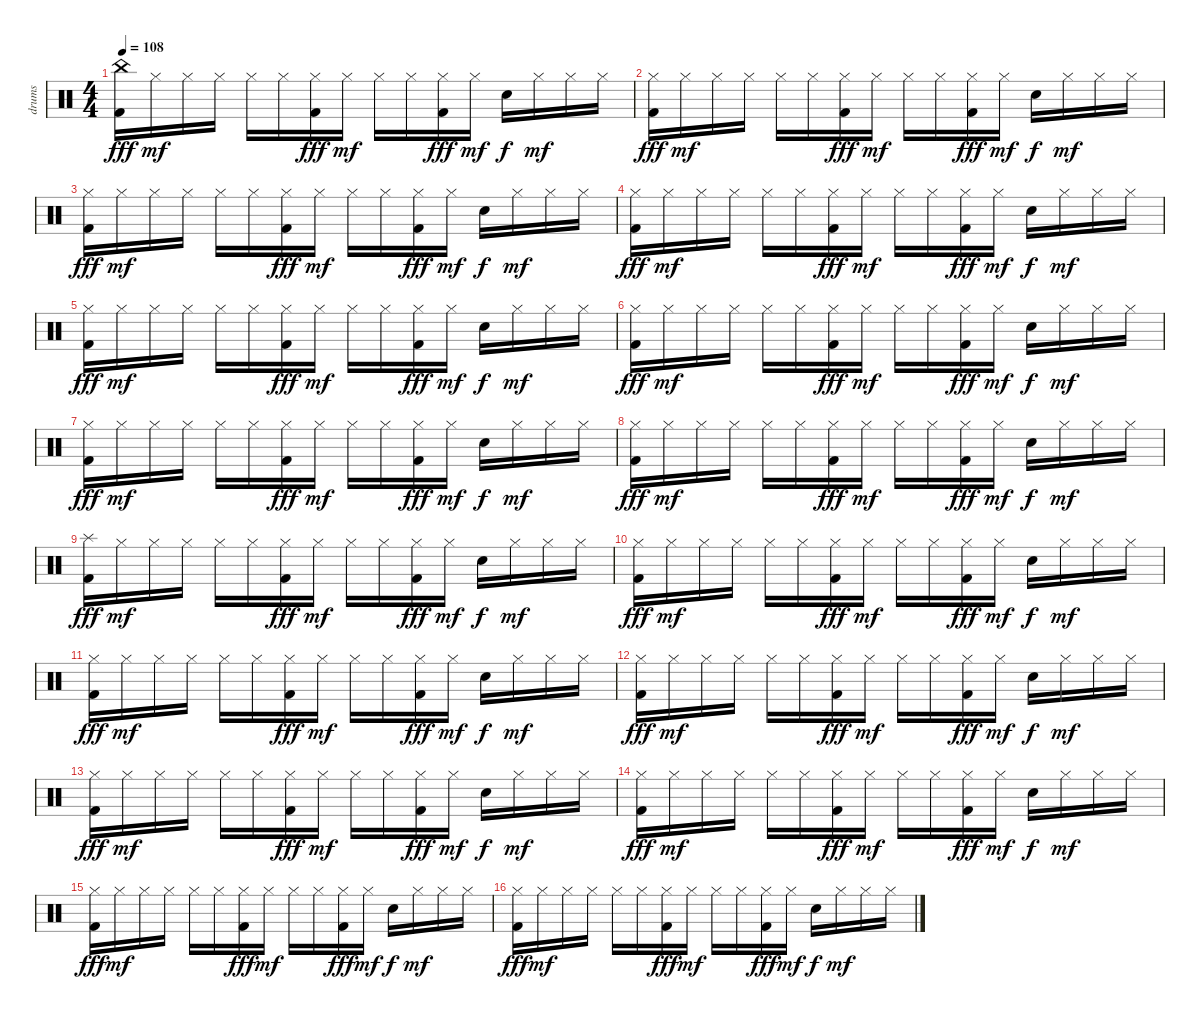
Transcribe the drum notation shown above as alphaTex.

\track ("drums" "drums") {instrument percussion}
\staff {score}
\articulation defaults
\ts (4 4)
\tempo 108
\clef neutral
\ks c
("China (hit)" "Kick (hit) 2").16{dy fff} "Hi-Hat (closed)".16{dy mf} "Hi-Hat (closed)".16 "Hi-Hat (closed)".16 "Hi-Hat (closed)".16 "Hi-Hat (closed)".16 ("Hi-Hat (closed)" "Kick (hit) 2").16{dy fff} "Hi-Hat (closed)".16{dy mf} "Hi-Hat (closed)".16 "Hi-Hat (closed)".16 ("Hi-Hat (closed)" "Kick (hit) 2").16{dy fff} "Hi-Hat (closed)".16{dy mf} "Snare (hit) 2".16{dy f} "Hi-Hat (closed)".16{dy mf} "Hi-Hat (closed)".16 "Hi-Hat (closed)".16 |
("Hi-Hat (closed)" "Kick (hit) 2").16{dy fff} "Hi-Hat (closed)".16{dy mf} "Hi-Hat (closed)".16 "Hi-Hat (closed)".16 "Hi-Hat (closed)".16 "Hi-Hat (closed)".16 ("Hi-Hat (closed)" "Kick (hit) 2").16{dy fff} "Hi-Hat (closed)".16{dy mf} "Hi-Hat (closed)".16 "Hi-Hat (closed)".16 ("Hi-Hat (closed)" "Kick (hit) 2").16{dy fff} "Hi-Hat (closed)".16{dy mf} "Snare (hit) 2".16{dy f} "Hi-Hat (closed)".16{dy mf} "Hi-Hat (closed)".16 "Hi-Hat (closed)".16 |
("Hi-Hat (closed)" "Kick (hit) 2").16{dy fff} "Hi-Hat (closed)".16{dy mf} "Hi-Hat (closed)".16 "Hi-Hat (closed)".16 "Hi-Hat (closed)".16 "Hi-Hat (closed)".16 ("Hi-Hat (closed)" "Kick (hit) 2").16{dy fff} "Hi-Hat (closed)".16{dy mf} "Hi-Hat (closed)".16 "Hi-Hat (closed)".16 ("Hi-Hat (closed)" "Kick (hit) 2").16{dy fff} "Hi-Hat (closed)".16{dy mf} "Snare (hit) 2".16{dy f} "Hi-Hat (closed)".16{dy mf} "Hi-Hat (closed)".16 "Hi-Hat (closed)".16 |
("Hi-Hat (closed)" "Kick (hit) 2").16{dy fff} "Hi-Hat (closed)".16{dy mf} "Hi-Hat (closed)".16 "Hi-Hat (closed)".16 "Hi-Hat (closed)".16 "Hi-Hat (closed)".16 ("Hi-Hat (closed)" "Kick (hit) 2").16{dy fff} "Hi-Hat (closed)".16{dy mf} "Hi-Hat (closed)".16 "Hi-Hat (closed)".16 ("Hi-Hat (closed)" "Kick (hit) 2").16{dy fff} "Hi-Hat (closed)".16{dy mf} "Snare (hit) 2".16{dy f} "Hi-Hat (closed)".16{dy mf} "Hi-Hat (closed)".16 "Hi-Hat (closed)".16 |
("Hi-Hat (closed)" "Kick (hit) 2").16{dy fff} "Hi-Hat (closed)".16{dy mf} "Hi-Hat (closed)".16 "Hi-Hat (closed)".16 "Hi-Hat (closed)".16 "Hi-Hat (closed)".16 ("Hi-Hat (closed)" "Kick (hit) 2").16{dy fff} "Hi-Hat (closed)".16{dy mf} "Hi-Hat (closed)".16 "Hi-Hat (closed)".16 ("Hi-Hat (closed)" "Kick (hit) 2").16{dy fff} "Hi-Hat (closed)".16{dy mf} "Snare (hit) 2".16{dy f} "Hi-Hat (closed)".16{dy mf} "Hi-Hat (closed)".16 "Hi-Hat (closed)".16 |
("Hi-Hat (closed)" "Kick (hit) 2").16{dy fff} "Hi-Hat (closed)".16{dy mf} "Hi-Hat (closed)".16 "Hi-Hat (closed)".16 "Hi-Hat (closed)".16 "Hi-Hat (closed)".16 ("Hi-Hat (closed)" "Kick (hit) 2").16{dy fff} "Hi-Hat (closed)".16{dy mf} "Hi-Hat (closed)".16 "Hi-Hat (closed)".16 ("Hi-Hat (closed)" "Kick (hit) 2").16{dy fff} "Hi-Hat (closed)".16{dy mf} "Snare (hit) 2".16{dy f} "Hi-Hat (closed)".16{dy mf} "Hi-Hat (closed)".16 "Hi-Hat (closed)".16 |
("Hi-Hat (closed)" "Kick (hit) 2").16{dy fff} "Hi-Hat (closed)".16{dy mf} "Hi-Hat (closed)".16 "Hi-Hat (closed)".16 "Hi-Hat (closed)".16 "Hi-Hat (closed)".16 ("Hi-Hat (closed)" "Kick (hit) 2").16{dy fff} "Hi-Hat (closed)".16{dy mf} "Hi-Hat (closed)".16 "Hi-Hat (closed)".16 ("Hi-Hat (closed)" "Kick (hit) 2").16{dy fff} "Hi-Hat (closed)".16{dy mf} "Snare (hit) 2".16{dy f} "Hi-Hat (closed)".16{dy mf} "Hi-Hat (closed)".16 "Hi-Hat (closed)".16 |
("Hi-Hat (closed)" "Kick (hit) 2").16{dy fff} "Hi-Hat (closed)".16{dy mf} "Hi-Hat (closed)".16 "Hi-Hat (closed)".16 "Hi-Hat (closed)".16 "Hi-Hat (closed)".16 ("Hi-Hat (closed)" "Kick (hit) 2").16{dy fff} "Hi-Hat (closed)".16{dy mf} "Hi-Hat (closed)".16 "Hi-Hat (closed)".16 ("Hi-Hat (closed)" "Kick (hit) 2").16{dy fff} "Hi-Hat (closed)".16{dy mf} "Snare (hit) 2".16{dy f} "Hi-Hat (closed)".16{dy mf} "Hi-Hat (closed)".16 "Hi-Hat (closed)".16 |
("Splash (hit)" "Kick (hit) 2").16{dy fff} "Hi-Hat (closed)".16{dy mf} "Hi-Hat (closed)".16 "Hi-Hat (closed)".16 "Hi-Hat (closed)".16 "Hi-Hat (closed)".16 ("Hi-Hat (closed)" "Kick (hit) 2").16{dy fff} "Hi-Hat (closed)".16{dy mf} "Hi-Hat (closed)".16 "Hi-Hat (closed)".16 ("Hi-Hat (closed)" "Kick (hit) 2").16{dy fff} "Hi-Hat (closed)".16{dy mf} "Snare (hit) 2".16{dy f} "Hi-Hat (closed)".16{dy mf} "Hi-Hat (closed)".16 "Hi-Hat (closed)".16 |
("Hi-Hat (closed)" "Kick (hit) 2").16{dy fff} "Hi-Hat (closed)".16{dy mf} "Hi-Hat (closed)".16 "Hi-Hat (closed)".16 "Hi-Hat (closed)".16 "Hi-Hat (closed)".16 ("Hi-Hat (closed)" "Kick (hit) 2").16{dy fff} "Hi-Hat (closed)".16{dy mf} "Hi-Hat (closed)".16 "Hi-Hat (closed)".16 ("Hi-Hat (closed)" "Kick (hit) 2").16{dy fff} "Hi-Hat (closed)".16{dy mf} "Snare (hit) 2".16{dy f} "Hi-Hat (closed)".16{dy mf} "Hi-Hat (closed)".16 "Hi-Hat (closed)".16 |
("Hi-Hat (closed)" "Kick (hit) 2").16{dy fff} "Hi-Hat (closed)".16{dy mf} "Hi-Hat (closed)".16 "Hi-Hat (closed)".16 "Hi-Hat (closed)".16 "Hi-Hat (closed)".16 ("Hi-Hat (closed)" "Kick (hit) 2").16{dy fff} "Hi-Hat (closed)".16{dy mf} "Hi-Hat (closed)".16 "Hi-Hat (closed)".16 ("Hi-Hat (closed)" "Kick (hit) 2").16{dy fff} "Hi-Hat (closed)".16{dy mf} "Snare (hit) 2".16{dy f} "Hi-Hat (closed)".16{dy mf} "Hi-Hat (closed)".16 "Hi-Hat (closed)".16 |
("Hi-Hat (closed)" "Kick (hit) 2").16{dy fff} "Hi-Hat (closed)".16{dy mf} "Hi-Hat (closed)".16 "Hi-Hat (closed)".16 "Hi-Hat (closed)".16 "Hi-Hat (closed)".16 ("Hi-Hat (closed)" "Kick (hit) 2").16{dy fff} "Hi-Hat (closed)".16{dy mf} "Hi-Hat (closed)".16 "Hi-Hat (closed)".16 ("Hi-Hat (closed)" "Kick (hit) 2").16{dy fff} "Hi-Hat (closed)".16{dy mf} "Snare (hit) 2".16{dy f} "Hi-Hat (closed)".16{dy mf} "Hi-Hat (closed)".16 "Hi-Hat (closed)".16 |
("Hi-Hat (closed)" "Kick (hit) 2").16{dy fff} "Hi-Hat (closed)".16{dy mf} "Hi-Hat (closed)".16 "Hi-Hat (closed)".16 "Hi-Hat (closed)".16 "Hi-Hat (closed)".16 ("Hi-Hat (closed)" "Kick (hit) 2").16{dy fff} "Hi-Hat (closed)".16{dy mf} "Hi-Hat (closed)".16 "Hi-Hat (closed)".16 ("Hi-Hat (closed)" "Kick (hit) 2").16{dy fff} "Hi-Hat (closed)".16{dy mf} "Snare (hit) 2".16{dy f} "Hi-Hat (closed)".16{dy mf} "Hi-Hat (closed)".16 "Hi-Hat (closed)".16 |
("Hi-Hat (closed)" "Kick (hit) 2").16{dy fff} "Hi-Hat (closed)".16{dy mf} "Hi-Hat (closed)".16 "Hi-Hat (closed)".16 "Hi-Hat (closed)".16 "Hi-Hat (closed)".16 ("Hi-Hat (closed)" "Kick (hit) 2").16{dy fff} "Hi-Hat (closed)".16{dy mf} "Hi-Hat (closed)".16 "Hi-Hat (closed)".16 ("Hi-Hat (closed)" "Kick (hit) 2").16{dy fff} "Hi-Hat (closed)".16{dy mf} "Snare (hit) 2".16{dy f} "Hi-Hat (closed)".16{dy mf} "Hi-Hat (closed)".16 "Hi-Hat (closed)".16 |
("Hi-Hat (closed)" "Kick (hit) 2").16{dy fff} "Hi-Hat (closed)".16{dy mf} "Hi-Hat (closed)".16 "Hi-Hat (closed)".16 "Hi-Hat (closed)".16 "Hi-Hat (closed)".16 ("Hi-Hat (closed)" "Kick (hit) 2").16{dy fff} "Hi-Hat (closed)".16{dy mf} "Hi-Hat (closed)".16 "Hi-Hat (closed)".16 ("Hi-Hat (closed)" "Kick (hit) 2").16{dy fff} "Hi-Hat (closed)".16{dy mf} "Snare (hit) 2".16{dy f} "Hi-Hat (closed)".16{dy mf} "Hi-Hat (closed)".16 "Hi-Hat (closed)".16 |
("Hi-Hat (closed)" "Kick (hit) 2").16{dy fff} "Hi-Hat (closed)".16{dy mf} "Hi-Hat (closed)".16 "Hi-Hat (closed)".16 "Hi-Hat (closed)".16 "Hi-Hat (closed)".16 ("Hi-Hat (closed)" "Kick (hit) 2").16{dy fff} "Hi-Hat (closed)".16{dy mf} "Hi-Hat (closed)".16 "Hi-Hat (closed)".16 ("Hi-Hat (closed)" "Kick (hit) 2").16{dy fff} "Hi-Hat (closed)".16{dy mf} "Snare (hit) 2".16{dy f} "Hi-Hat (closed)".16{dy mf} "Hi-Hat (closed)".16 "Hi-Hat (closed)".16
